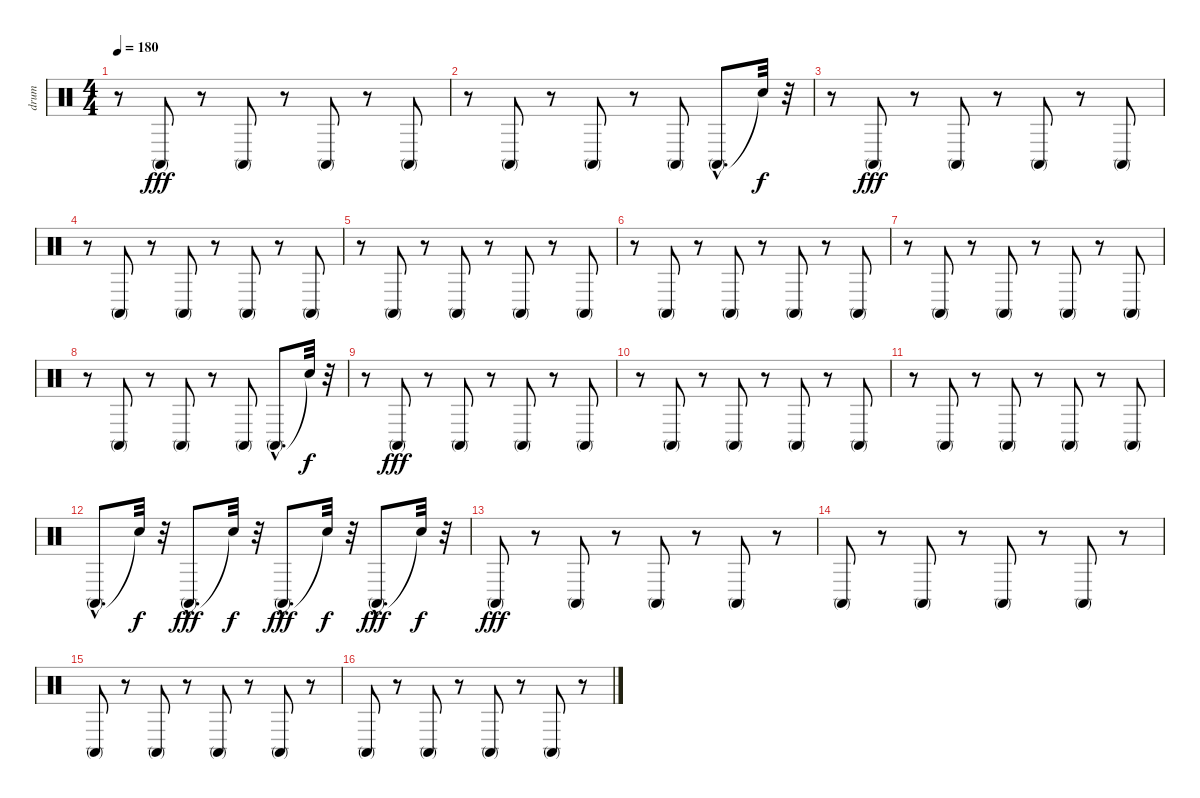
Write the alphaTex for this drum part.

\track ("drum" "drum") {instrument percussion}
\staff {score}
\articulation defaults
\ts (4 4)
\tempo 180
\clef neutral
\ks c
r.8{dy fff} "Conga high (mute)".8 r.8 "Conga high (mute)".8 r.8 "Conga high (mute)".8 r.8 "Conga high (mute)".8 |
r.8 "Conga high (mute)".8 r.8 "Conga high (mute)".8 r.8 "Conga high (mute)".8 "Conga high (mute)"{hac}.8{d} "Snare (hit)"{t}.32{dy f} r.32 |
r.8 "Conga high (mute)".8{dy fff} r.8 "Conga high (mute)".8 r.8 "Conga high (mute)".8 r.8 "Conga high (mute)".8 |
r.8 "Conga high (mute)".8 r.8 "Conga high (mute)".8 r.8 "Conga high (mute)".8 r.8 "Conga high (mute)".8 |
r.8 "Conga high (mute)".8 r.8 "Conga high (mute)".8 r.8 "Conga high (mute)".8 r.8 "Conga high (mute)".8 |
r.8 "Conga high (mute)".8 r.8 "Conga high (mute)".8 r.8 "Conga high (mute)".8 r.8 "Conga high (mute)".8 |
r.8 "Conga high (mute)".8 r.8 "Conga high (mute)".8 r.8 "Conga high (mute)".8 r.8 "Conga high (mute)".8 |
r.8 "Conga high (mute)".8 r.8 "Conga high (mute)".8 r.8 "Conga high (mute)".8 "Conga high (mute)"{hac}.8{d} "Snare (hit)"{t}.32{dy f} r.32 |
r.8 "Conga high (mute)".8{dy fff} r.8 "Conga high (mute)".8 r.8 "Conga high (mute)".8 r.8 "Conga high (mute)".8 |
r.8 "Conga high (mute)".8 r.8 "Conga high (mute)".8 r.8 "Conga high (mute)".8 r.8 "Conga high (mute)".8 |
r.8 "Conga high (mute)".8 r.8 "Conga high (mute)".8 r.8 "Conga high (mute)".8 r.8 "Conga high (mute)".8 |
"Conga high (mute)"{hac}.8{d} "Snare (hit)"{t}.32{dy f} r.32 "Conga high (mute)"{hac}.8{d dy fff} "Snare (hit)"{t}.32{dy f} r.32 "Conga high (mute)"{hac}.8{d dy fff} "Snare (hit)"{t}.32{dy f} r.32 "Conga high (mute)"{hac}.8{d dy fff} "Snare (hit)"{t}.32{dy f} r.32 |
"Conga high (mute)".8{dy fff} r.8 "Conga high (mute)".8 r.8 "Conga high (mute)".8 r.8 "Conga high (mute)".8 r.8 |
"Conga high (mute)".8 r.8 "Conga high (mute)".8 r.8 "Conga high (mute)".8 r.8 "Conga high (mute)".8 r.8 |
"Conga high (mute)".8 r.8 "Conga high (mute)".8 r.8 "Conga high (mute)".8 r.8 "Conga high (mute)".8 r.8 |
"Conga high (mute)".8 r.8 "Conga high (mute)".8 r.8 "Conga high (mute)".8 r.8 "Conga high (mute)".8 r.8
